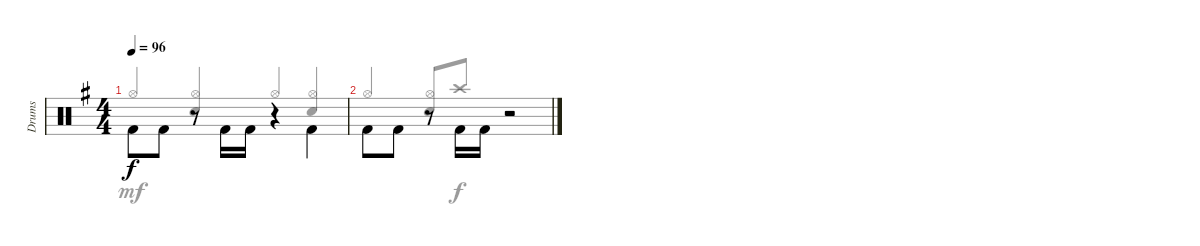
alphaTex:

\track ("Drums" "Drums") {instrument percussion}
\staff {score}
\articulation defaults
\voice
\ts (4 4)
\tempo 96
\clef neutral
\ks g "Kick (hit) 2".8{dy f beam Down} "Kick (hit) 2".8{beam Down}
r.8 "Kick (hit) 2".16{beam Down} "Kick (hit) 2".16{beam Down} r.4 "Kick (hit) 2".4{beam Down} |
"Kick (hit) 2".8{beam Down} "Kick (hit) 2".8{beam Down} r.8 "Kick (hit) 2".16{beam Down} "Kick (hit) 2".16{beam Down} r.2
\voice
\clef neutral
\ottava regular
\simile none
\ks g "Hi-Hat (open)".4{dy mf beam Up}
("Hi-Hat (open)" "Snare (hit) 2").4{beam Up} "Hi-Hat (open)".4{beam Up} ("Hi-Hat (open)" "Snare (hit) 2").4{beam Up} |
"Hi-Hat (open)".4{beam Up} ("Hi-Hat (open)" "Snare (hit) 2").8{beam Up} "Crash high (hit)".8{dy f} r.2
